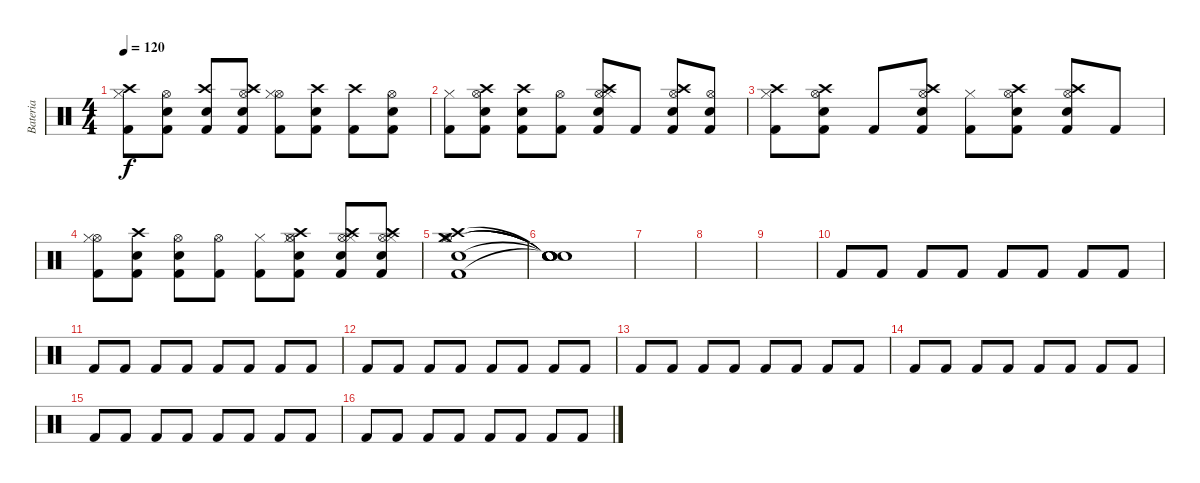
\track ("Bateria" "Bateria") {instrument percussion}
\staff {score}
\articulation defaults
\ts (4 4)
\tempo 120
\clef neutral
\ks c
("Kick (hit) 2" "Hi-Hat (closed)" "Crash high (hit)").8{dy f} ("Kick (hit) 2" "Hi-Hat (open)" "Snare (hit) 2").8 ("Kick (hit) 2" "Snare (hit) 2" "Crash high (hit)").8 ("Kick (hit) 2" "Hi-Hat (open)" "Snare (hit) 2" "Crash high (hit)").8 ("Kick (hit) 2" "Hi-Hat (open)" "Hi-Hat (closed)").8 ("Kick (hit) 2" "Snare (hit) 2" "Crash high (hit)").8 ("Kick (hit) 2" "Crash high (hit)").8 ("Kick (hit) 2" "Hi-Hat (open)" "Snare (hit) 2").8 |
("Kick (hit) 2" "Hi-Hat (closed)").8 ("Kick (hit) 2" "Hi-Hat (open)" "Snare (hit) 2" "Crash high (hit)").8 ("Kick (hit) 2" "Snare (hit) 2" "Crash high (hit)").8 ("Kick (hit) 2" "Hi-Hat (open)").8 ("Kick (hit) 2" "Hi-Hat (open)" "Snare (hit) 2" "Hi-Hat (closed)" "Crash high (hit)").8 "Kick (hit) 2".8 ("Kick (hit) 2" "Hi-Hat (open)" "Snare (hit) 2" "Crash high (hit)").8 ("Kick (hit) 2" "Hi-Hat (open)" "Snare (hit) 2").8 |
("Kick (hit) 2" "Hi-Hat (closed)" "Crash high (hit)").8 ("Kick (hit) 2" "Hi-Hat (open)" "Snare (hit) 2" "Crash high (hit)").8 "Kick (hit) 2".8 ("Kick (hit) 2" "Hi-Hat (open)" "Snare (hit) 2" "Crash high (hit)").8 ("Kick (hit) 2" "Hi-Hat (closed)").8 ("Kick (hit) 2" "Hi-Hat (open)" "Snare (hit) 2" "Crash high (hit)").8 ("Kick (hit) 2" "Hi-Hat (open)" "Snare (hit) 2" "Crash high (hit)").8 "Kick (hit) 2".8 |
("Kick (hit) 2" "Hi-Hat (open)" "Hi-Hat (closed)").8 ("Kick (hit) 2" "Snare (hit) 2" "Crash high (hit)").8 ("Kick (hit) 2" "Hi-Hat (open)" "Snare (hit) 2").8 ("Kick (hit) 2" "Hi-Hat (open)").8 ("Kick (hit) 2" "Hi-Hat (closed)").8 ("Kick (hit) 2" "Hi-Hat (open)" "Snare (hit) 2" "Hi-Hat (closed)" "Crash high (hit)").8 ("Kick (hit) 2" "Hi-Hat (open)" "Snare (hit) 2" "Hi-Hat (closed)" "Crash high (hit)").8 ("Kick (hit) 2" "Hi-Hat (open)" "Snare (hit) 2" "Hi-Hat (closed)" "Crash high (hit)").8 |
("Kick (hit) 2" "Hi-Hat (open)" "Crash high (hit)" "Snare (hit) 2" "Crash medium (hit)" "Hi-Hat (closed)").1 |
("Snare (hit)"{t} "Snare (hit)"{t} "Snare (hit)"{t} "Snare (hit)"{t} "Snare (hit)"{t} "Snare (hit)"{t}).1 |
|
|
|
"Kick (hit) 2".8 "Kick (hit) 2".8 "Kick (hit) 2".8 "Kick (hit) 2".8 "Kick (hit) 2".8 "Kick (hit) 2".8 "Kick (hit) 2".8 "Kick (hit) 2".8 |
"Kick (hit) 2".8 "Kick (hit) 2".8 "Kick (hit) 2".8 "Kick (hit) 2".8 "Kick (hit) 2".8 "Kick (hit) 2".8 "Kick (hit) 2".8 "Kick (hit) 2".8 |
"Kick (hit) 2".8 "Kick (hit) 2".8 "Kick (hit) 2".8 "Kick (hit) 2".8 "Kick (hit) 2".8 "Kick (hit) 2".8 "Kick (hit) 2".8 "Kick (hit) 2".8 |
"Kick (hit) 2".8 "Kick (hit) 2".8 "Kick (hit) 2".8 "Kick (hit) 2".8 "Kick (hit) 2".8 "Kick (hit) 2".8 "Kick (hit) 2".8 "Kick (hit) 2".8 |
"Kick (hit) 2".8 "Kick (hit) 2".8 "Kick (hit) 2".8 "Kick (hit) 2".8 "Kick (hit) 2".8 "Kick (hit) 2".8 "Kick (hit) 2".8 "Kick (hit) 2".8 |
"Kick (hit) 2".8 "Kick (hit) 2".8 "Kick (hit) 2".8 "Kick (hit) 2".8 "Kick (hit) 2".8 "Kick (hit) 2".8 "Kick (hit) 2".8 "Kick (hit) 2".8 |
"Kick (hit) 2".8 "Kick (hit) 2".8 "Kick (hit) 2".8 "Kick (hit) 2".8 "Kick (hit) 2".8 "Kick (hit) 2".8 "Kick (hit) 2".8 "Kick (hit) 2".8
